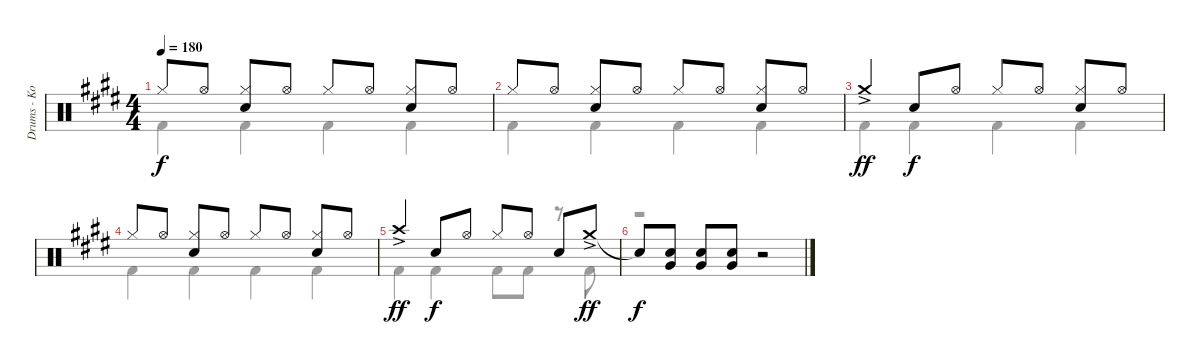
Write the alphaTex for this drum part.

\track ("Drums - Ko-Ki" "Drums - Ko") {instrument percussion}
\staff {score}
\articulation defaults
\voice
\ts (4 4)
\tempo 180
\clef neutral
\ks e "Hi-Hat (closed)".8{dy f} "Hi-Hat (open)".8
("Hi-Hat (closed)" "Snare (hit) 2").8 "Hi-Hat (open)".8 "Hi-Hat (closed)".8 "Hi-Hat (open)".8 ("Hi-Hat (closed)" "Snare (hit) 2").8 "Hi-Hat (open)".8 |
"Hi-Hat (closed)".8 "Hi-Hat (open)".8 ("Hi-Hat (closed)" "Snare (hit) 2").8 "Hi-Hat (open)".8 "Hi-Hat (closed)".8 "Hi-Hat (open)".8 ("Hi-Hat (closed)" "Snare (hit) 2").8 "Hi-Hat (open)".8 |
"Crash medium (hit)"{ac}.4{dy ff} "Snare (hit) 2".8{dy f} "Hi-Hat (open)".8 "Hi-Hat (closed)".8 "Hi-Hat (open)".8 ("Hi-Hat (closed)" "Snare (hit) 2").8 "Hi-Hat (open)".8 |
"Hi-Hat (closed)".8 "Hi-Hat (open)".8 ("Hi-Hat (closed)" "Snare (hit) 2").8 "Hi-Hat (open)".8 "Hi-Hat (closed)".8 "Hi-Hat (open)".8 ("Hi-Hat (closed)" "Snare (hit) 2").8 "Hi-Hat (open)".8 |
"Crash high (hit)"{ac}.4{dy ff} "Snare (hit) 2".8{dy f} "Hi-Hat (open)".8 "Hi-Hat (closed)".8 "Hi-Hat (open)".8 "Snare (hit) 2".8 "Crash medium (hit)"{ac}.8{dy ff} |
"Snare (hit)"{t}.8{dy f} ("Very Low Tom (hit)" "Snare (hit) 2").8 ("Very Low Tom (hit)" "Snare (hit) 2").8 ("Very Low Tom (hit)" "Snare (hit) 2").8 r.2
\voice
\clef neutral
\ottava regular
\simile none
\ks e "Kick (hit) 2".4{dy f} "Kick (hit) 2".4 "Kick (hit) 2".4 "Kick (hit) 2".4
|
"Kick (hit) 2".4 "Kick (hit) 2".4 "Kick (hit) 2".4 "Kick (hit) 2".4 |
"Kick (hit) 2".4 "Kick (hit) 2".4 "Kick (hit) 2".4 "Kick (hit) 2".4 |
"Kick (hit) 2".4 "Kick (hit) 2".4 "Kick (hit) 2".4 "Kick (hit) 2".4 |
"Kick (hit) 2".4 "Kick (hit) 2".4 "Kick (hit) 2".8 "Kick (hit) 2".8 r.8 "Kick (hit) 2".8 |
r.1
